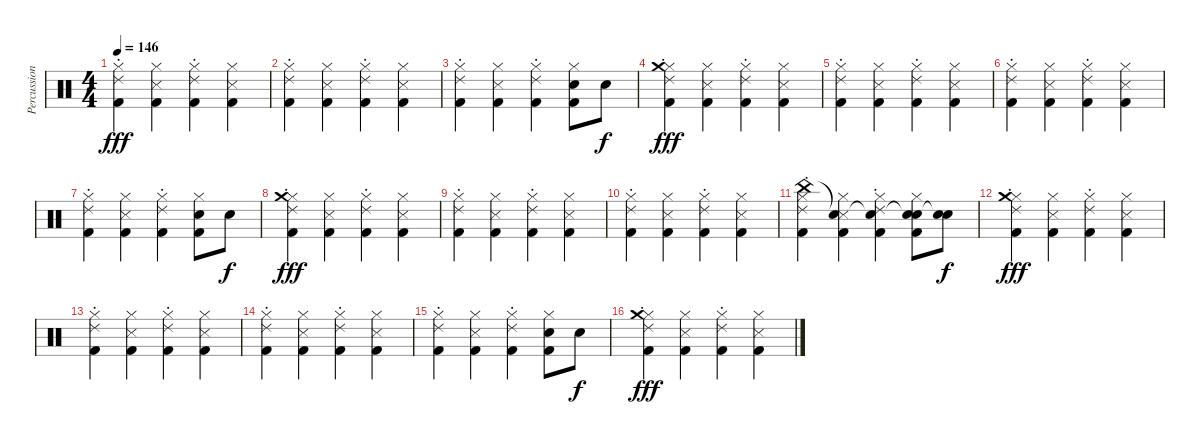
\track ("Percussion" "Percussion") {instrument percussion}
\staff {score}
\articulation defaults
\ts (4 4)
\tempo 146
\clef neutral
\ks c
("Hi-Hat (closed)" "Ride (choke) 2" "Kick (hit) 2").4{dy fff} ("Hi-Hat (closed)" "Metronome (hit)" "Kick (hit) 2").4 ("Hi-Hat (closed)" "Ride (choke) 2" "Kick (hit) 2").4 ("Hi-Hat (closed)" "Metronome (hit)" "Kick (hit) 2").4 |
("Hi-Hat (closed)" "Ride (choke) 2" "Kick (hit) 2").4 ("Hi-Hat (closed)" "Metronome (hit)" "Kick (hit) 2").4 ("Hi-Hat (closed)" "Ride (choke) 2" "Kick (hit) 2").4 ("Hi-Hat (closed)" "Metronome (hit)" "Kick (hit) 2").4 |
("Hi-Hat (closed)" "Ride (choke) 2" "Kick (hit) 2").4 ("Hi-Hat (closed)" "Metronome (hit)" "Kick (hit) 2").4 ("Hi-Hat (closed)" "Ride (choke) 2" "Kick (hit) 2").4 ("Hi-Hat (closed)" "Hand Clap (hit)" "Kick (hit) 2").8 "Hand Clap (hit)".8{dy f} |
("Hi-Hat (closed)" "Ride (choke) 2" "Crash medium (hit)" "Kick (hit) 2").4{dy fff} ("Hi-Hat (closed)" "Metronome (hit)" "Kick (hit) 2").4 ("Hi-Hat (closed)" "Ride (choke) 2" "Kick (hit) 2").4 ("Hi-Hat (closed)" "Metronome (hit)" "Kick (hit) 2").4 |
("Hi-Hat (closed)" "Ride (choke) 2" "Kick (hit) 2").4 ("Hi-Hat (closed)" "Metronome (hit)" "Kick (hit) 2").4 ("Hi-Hat (closed)" "Ride (choke) 2" "Kick (hit) 2").4 ("Hi-Hat (closed)" "Metronome (hit)" "Kick (hit) 2").4 |
("Hi-Hat (closed)" "Ride (choke) 2" "Kick (hit) 2").4 ("Hi-Hat (closed)" "Metronome (hit)" "Kick (hit) 2").4 ("Hi-Hat (closed)" "Ride (choke) 2" "Kick (hit) 2").4 ("Hi-Hat (closed)" "Metronome (hit)" "Kick (hit) 2").4 |
("Hi-Hat (closed)" "Ride (choke) 2" "Kick (hit) 2").4 ("Hi-Hat (closed)" "Metronome (hit)" "Kick (hit) 2").4 ("Hi-Hat (closed)" "Ride (choke) 2" "Kick (hit) 2").4 ("Hi-Hat (closed)" "Hand Clap (hit)" "Kick (hit) 2").8 "Hand Clap (hit)".8{dy f} |
("Hi-Hat (closed)" "Ride (choke) 2" "Crash medium (hit)" "Kick (hit) 2").4{dy fff} ("Hi-Hat (closed)" "Metronome (hit)" "Kick (hit) 2").4 ("Hi-Hat (closed)" "Ride (choke) 2" "Kick (hit) 2").4 ("Hi-Hat (closed)" "Metronome (hit)" "Kick (hit) 2").4 |
("Hi-Hat (closed)" "Ride (choke) 2" "Kick (hit) 2").4 ("Hi-Hat (closed)" "Metronome (hit)" "Kick (hit) 2").4 ("Hi-Hat (closed)" "Ride (choke) 2" "Kick (hit) 2").4 ("Hi-Hat (closed)" "Metronome (hit)" "Kick (hit) 2").4 |
("Hi-Hat (closed)" "Ride (choke) 2" "Kick (hit) 2").4 ("Hi-Hat (closed)" "Metronome (hit)" "Kick (hit) 2").4 ("Hi-Hat (closed)" "Ride (choke) 2" "Kick (hit) 2").4 ("Hi-Hat (closed)" "Metronome (hit)" "Kick (hit) 2").4 |
("Hi-Hat (closed)" "Ride (choke) 2" "China (hit)" "Kick (hit) 2").4 ("Hi-Hat (closed)" "Metronome (hit)" "Snare (hit)"{t} "Kick (hit) 2").4 ("Hi-Hat (closed)" "Ride (choke) 2" "Snare (hit)"{t} "Kick (hit) 2").4 ("Hi-Hat (closed)" "Hand Clap (hit)" "Snare (hit)"{t} "Kick (hit) 2").8 ("Hand Clap (hit)" "Snare (hit)"{t}).8{dy f} |
("Hi-Hat (closed)" "Ride (choke) 2" "Crash medium (hit)" "Kick (hit) 2").4{dy fff} ("Hi-Hat (closed)" "Metronome (hit)" "Kick (hit) 2").4 ("Hi-Hat (closed)" "Ride (choke) 2" "Kick (hit) 2").4 ("Hi-Hat (closed)" "Metronome (hit)" "Kick (hit) 2").4 |
("Hi-Hat (closed)" "Ride (choke) 2" "Kick (hit) 2").4 ("Hi-Hat (closed)" "Metronome (hit)" "Kick (hit) 2").4 ("Hi-Hat (closed)" "Ride (choke) 2" "Kick (hit) 2").4 ("Hi-Hat (closed)" "Metronome (hit)" "Kick (hit) 2").4 |
("Hi-Hat (closed)" "Ride (choke) 2" "Kick (hit) 2").4 ("Hi-Hat (closed)" "Metronome (hit)" "Kick (hit) 2").4 ("Hi-Hat (closed)" "Ride (choke) 2" "Kick (hit) 2").4 ("Hi-Hat (closed)" "Metronome (hit)" "Kick (hit) 2").4 |
("Hi-Hat (closed)" "Ride (choke) 2" "Kick (hit) 2").4 ("Hi-Hat (closed)" "Metronome (hit)" "Kick (hit) 2").4 ("Hi-Hat (closed)" "Ride (choke) 2" "Kick (hit) 2").4 ("Hi-Hat (closed)" "Hand Clap (hit)" "Kick (hit) 2").8 "Hand Clap (hit)".8{dy f} |
("Hi-Hat (closed)" "Ride (choke) 2" "Crash medium (hit)" "Kick (hit) 2").4{dy fff} ("Hi-Hat (closed)" "Metronome (hit)" "Kick (hit) 2").4 ("Hi-Hat (closed)" "Ride (choke) 2" "Kick (hit) 2").4 ("Hi-Hat (closed)" "Metronome (hit)" "Kick (hit) 2").4
